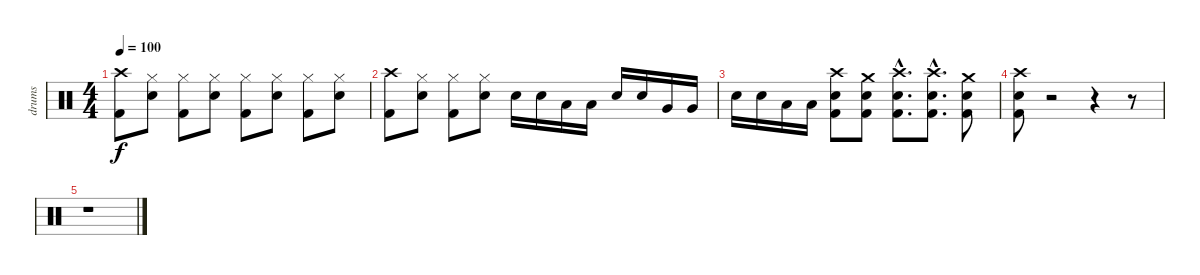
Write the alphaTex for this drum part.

\track ("drums" "drums") {instrument percussion}
\staff {score}
\articulation defaults
\ts (4 4)
\tempo 100
\clef neutral
\ks c
("Crash high (hit)" "Kick (hit) 2").8{dy f} ("Hi-Hat (closed)" "Snare (hit) 2").8 ("Hi-Hat (closed)" "Kick (hit) 2").8 ("Hi-Hat (closed)" "Snare (hit) 2").8 ("Hi-Hat (closed)" "Kick (hit) 2").8 ("Hi-Hat (closed)" "Snare (hit) 2").8 ("Hi-Hat (closed)" "Kick (hit) 2").8 ("Hi-Hat (closed)" "Snare (hit) 2").8 |
("Crash high (hit)" "Kick (hit) 2").8 ("Hi-Hat (closed)" "Snare (hit) 2").8 ("Hi-Hat (closed)" "Kick (hit) 2").8 ("Hi-Hat (closed)" "Snare (hit) 2").8 "Snare (hit) 2".16 "Snare (hit) 2".16 "Low Tom (hit)".16 "Low Tom (hit)".16 "Snare (hit) 2".16 "Snare (hit) 2".16 "Very Low Tom (hit)".16 "Very Low Tom (hit)".16 |
"Snare (hit) 2".16 "Snare (hit) 2".16 "Low Floor Tom (hit)".16 "Low Floor Tom (hit)".16 ("Crash high (hit)" "Snare (hit) 2" "Kick (hit) 2").8 ("Crash medium (hit)" "Snare (hit) 2" "Kick (hit) 2").8 ("Crash high (hit)"{hac} "Snare (hit) 2"{hac} "Kick (hit) 2"{hac}).8{d} ("Crash high (hit)"{hac} "Snare (hit) 2"{hac} "Kick (hit) 2"{hac}).8{d} ("Crash medium (hit)" "Snare (hit) 2" "Kick (hit) 2").8 |
("Crash high (hit)" "Snare (hit) 2" "Kick (hit) 2").8 r.2 r.4 r.8 |
r.1
